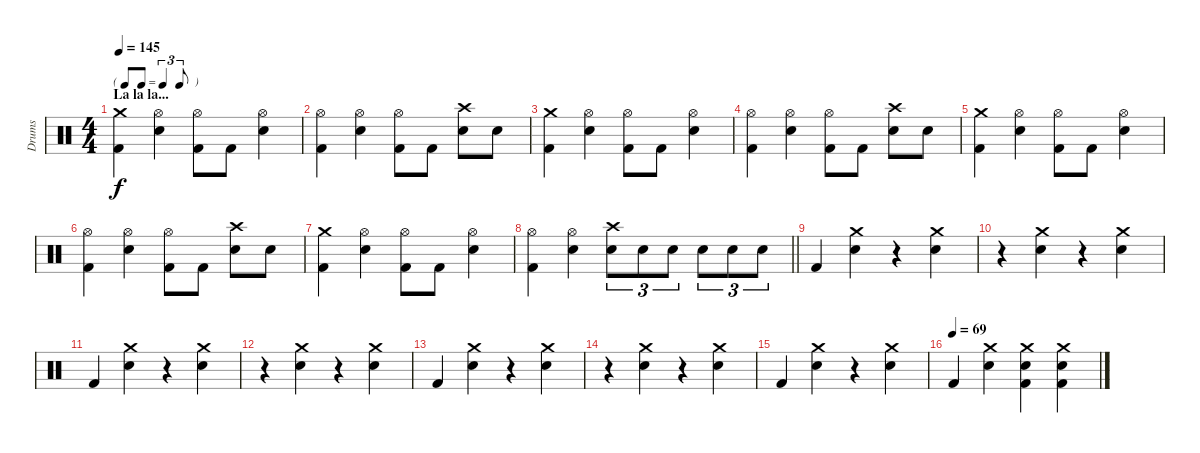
\track ("Drums" "Drums") {instrument percussion}
\staff {score}
\articulation defaults
\ts (4 4)
\tf triplet8th
\section ("" "La la la...")
\tempo 145
\clef neutral
\ks c
("Crash medium (hit)" "Kick (hit) 2").4{dy f} ("Hi-Hat (open)" "Electric Snare (hit)").4 ("Hi-Hat (open)" "Kick (hit) 2").8 "Kick (hit) 2".8 ("Hi-Hat (open)" "Electric Snare (hit)").4 |
("Hi-Hat (open)" "Kick (hit) 2").4 ("Hi-Hat (open)" "Electric Snare (hit)").4 ("Hi-Hat (open)" "Kick (hit) 2").8 "Kick (hit) 2".8 ("Crash high (hit)" "Electric Snare (hit)").8 "Electric Snare (hit)".8 |
("Crash medium (hit)" "Kick (hit) 2").4 ("Hi-Hat (open)" "Electric Snare (hit)").4 ("Hi-Hat (open)" "Kick (hit) 2").8 "Kick (hit) 2".8 ("Hi-Hat (open)" "Electric Snare (hit)").4 |
("Hi-Hat (open)" "Kick (hit) 2").4 ("Hi-Hat (open)" "Electric Snare (hit)").4 ("Hi-Hat (open)" "Kick (hit) 2").8 "Kick (hit) 2".8 ("Crash high (hit)" "Electric Snare (hit)").8 "Electric Snare (hit)".8 |
("Crash medium (hit)" "Kick (hit) 2").4 ("Hi-Hat (open)" "Electric Snare (hit)").4 ("Hi-Hat (open)" "Kick (hit) 2").8 "Kick (hit) 2".8 ("Hi-Hat (open)" "Electric Snare (hit)").4 |
("Hi-Hat (open)" "Kick (hit) 2").4 ("Hi-Hat (open)" "Electric Snare (hit)").4 ("Hi-Hat (open)" "Kick (hit) 2").8 "Kick (hit) 2".8 ("Crash high (hit)" "Electric Snare (hit)").8 "Electric Snare (hit)".8 |
("Crash medium (hit)" "Kick (hit) 2").4 ("Hi-Hat (open)" "Electric Snare (hit)").4 ("Hi-Hat (open)" "Kick (hit) 2").8 "Kick (hit) 2".8 ("Hi-Hat (open)" "Electric Snare (hit)").4 |
\barLineRight lightlight
("Hi-Hat (open)" "Kick (hit) 2").4 ("Hi-Hat (open)" "Electric Snare (hit)").4 ("Crash high (hit)" "Electric Snare (hit)").8{tu (3 2)} "Electric Snare (hit)".8{tu (3 2)} "Electric Snare (hit)".8{tu (3 2)} "Electric Snare (hit)".8{tu (3 2)} "Electric Snare (hit)".8{tu (3 2)} "Electric Snare (hit)".8{tu (3 2)} |
"Kick (hit) 2".4 ("Crash medium (hit)" "Electric Snare (hit)").4 r.4 ("Crash medium (hit)" "Electric Snare (hit)").4 |
r.4 ("Crash medium (hit)" "Electric Snare (hit)").4 r.4 ("Crash medium (hit)" "Electric Snare (hit)").4 |
"Kick (hit) 2".4 ("Crash medium (hit)" "Electric Snare (hit)").4 r.4 ("Crash medium (hit)" "Electric Snare (hit)").4 |
r.4 ("Crash medium (hit)" "Electric Snare (hit)").4 r.4 ("Crash medium (hit)" "Electric Snare (hit)").4 |
"Kick (hit) 2".4 ("Crash medium (hit)" "Electric Snare (hit)").4 r.4 ("Crash medium (hit)" "Electric Snare (hit)").4 |
r.4 ("Crash medium (hit)" "Electric Snare (hit)").4 r.4 ("Crash medium (hit)" "Electric Snare (hit)").4 |
"Kick (hit) 2".4 ("Crash medium (hit)" "Electric Snare (hit)").4 r.4 ("Crash medium (hit)" "Electric Snare (hit)").4 |
\tempo (69)
"Kick (hit) 2".4 ("Crash medium (hit)" "Electric Snare (hit)").4 ("Crash medium (hit)" "Electric Snare (hit)" "Kick (hit) 2").4 ("Crash medium (hit)" "Electric Snare (hit)" "Kick (hit) 2").4
